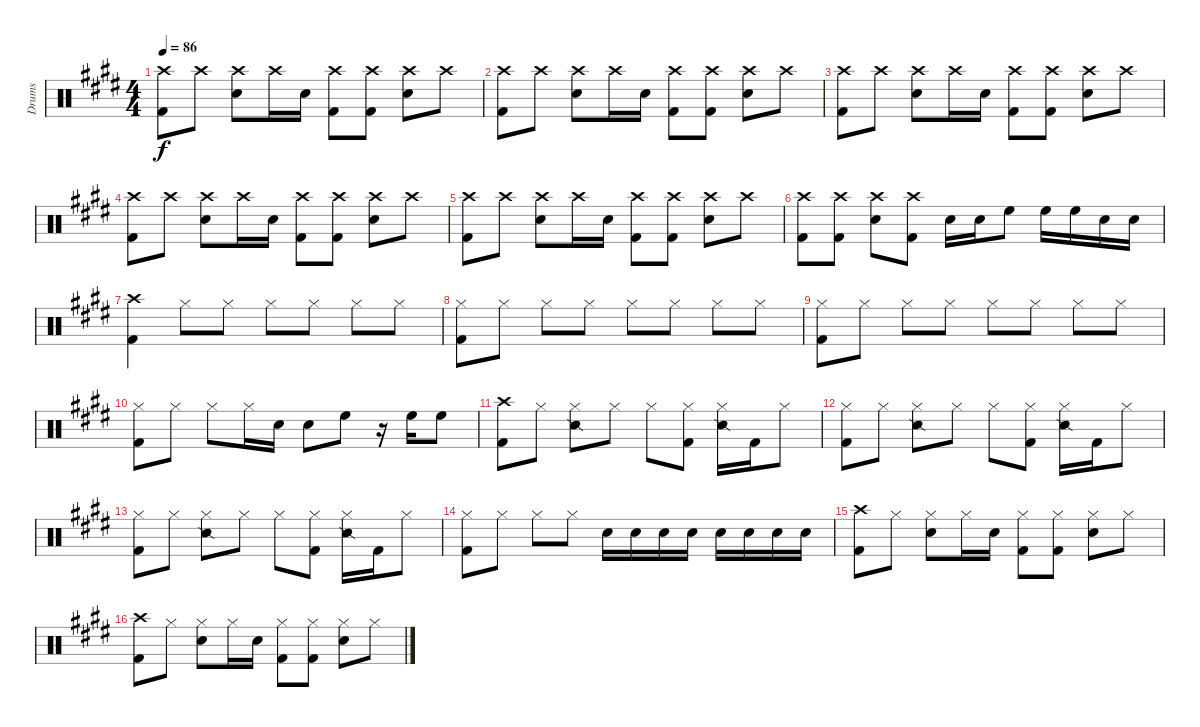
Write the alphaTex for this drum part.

\track ("Drums" "Drums") {instrument percussion}
\staff {score}
\articulation defaults
\ts (4 4)
\tempo 86
\clef neutral
\ks e
("Crash high (hit)" "Kick (hit) 2").8{dy f} "Crash high (hit)".8 ("Crash high (hit)" "Snare (hit) 2").8 "Crash high (hit)".16 "Snare (hit) 2".16 ("Crash high (hit)" "Kick (hit) 2").8 ("Crash high (hit)" "Kick (hit) 2").8 ("Crash high (hit)" "Snare (hit) 2").8 "Crash high (hit)".8 |
("Crash high (hit)" "Kick (hit) 2").8 "Crash high (hit)".8 ("Crash high (hit)" "Snare (hit) 2").8 "Crash high (hit)".16 "Snare (hit) 2".16 ("Crash high (hit)" "Kick (hit) 2").8 ("Crash high (hit)" "Kick (hit) 2").8 ("Crash high (hit)" "Snare (hit) 2").8 "Crash high (hit)".8 |
("Crash high (hit)" "Kick (hit) 2").8 "Crash high (hit)".8 ("Crash high (hit)" "Snare (hit) 2").8 "Crash high (hit)".16 "Snare (hit) 2".16 ("Crash high (hit)" "Kick (hit) 2").8 ("Crash high (hit)" "Kick (hit) 2").8 ("Crash high (hit)" "Snare (hit) 2").8 "Crash high (hit)".8 |
("Crash high (hit)" "Kick (hit) 2").8 "Crash high (hit)".8 ("Crash high (hit)" "Snare (hit) 2").8 "Crash high (hit)".16 "Snare (hit) 2".16 ("Crash high (hit)" "Kick (hit) 2").8 ("Crash high (hit)" "Kick (hit) 2").8 ("Crash high (hit)" "Snare (hit) 2").8 "Crash high (hit)".8 |
("Crash high (hit)" "Kick (hit) 2").8 "Crash high (hit)".8 ("Crash high (hit)" "Snare (hit) 2").8 "Crash high (hit)".16 "Snare (hit) 2".16 ("Crash high (hit)" "Kick (hit) 2").8 ("Crash high (hit)" "Kick (hit) 2").8 ("Crash high (hit)" "Snare (hit) 2").8 "Crash high (hit)".8 |
("Crash high (hit)" "Kick (hit) 2").8 ("Crash high (hit)" "Kick (hit) 2").8 ("Crash high (hit)" "Snare (hit) 2").8 ("Crash high (hit)" "Kick (hit) 2").8 "Snare (hit) 2".16 "Snare (hit) 2".16 "High Floor Tom (hit)".8 "High Floor Tom (hit)".16 "High Floor Tom (hit)".16 "Snare (hit) 2".16 "Snare (hit) 2".16 |
("Crash high (hit)" "Kick (hit) 2").4 "Hi-Hat (closed)".8 "Hi-Hat (closed)".8 "Hi-Hat (closed)".8 "Hi-Hat (closed)".8 "Hi-Hat (closed)".8 "Hi-Hat (closed)".8 |
("Hi-Hat (closed)" "Kick (hit) 2").8 "Hi-Hat (closed)".8 "Hi-Hat (closed)".8 "Hi-Hat (closed)".8 "Hi-Hat (closed)".8 "Hi-Hat (closed)".8 "Hi-Hat (closed)".8 "Hi-Hat (closed)".8 |
("Hi-Hat (closed)" "Kick (hit) 2").8 "Hi-Hat (closed)".8 "Hi-Hat (closed)".8 "Hi-Hat (closed)".8 "Hi-Hat (closed)".8 "Hi-Hat (closed)".8 "Hi-Hat (closed)".8 "Hi-Hat (closed)".8 |
("Hi-Hat (closed)" "Kick (hit) 2").8 "Hi-Hat (closed)".8 "Hi-Hat (closed)".8 "Hi-Hat (closed)".16 "Snare (hit) 2".16 "Snare (hit) 2".8 "High Floor Tom (hit)".8 r.16 "High Floor Tom (hit)".16 "High Floor Tom (hit)".8 |
("Crash high (hit)" "Kick (hit) 2").8 "Hi-Hat (closed)".8 ("Hi-Hat (closed)" "Snare (side stick) 2").8 "Hi-Hat (closed)".8 "Hi-Hat (closed)".8 ("Hi-Hat (closed)" "Kick (hit) 2").8 ("Hi-Hat (closed)" "Snare (side stick) 2").16 "Kick (hit) 2".16 "Hi-Hat (closed)".8 |
("Hi-Hat (closed)" "Kick (hit) 2").8 "Hi-Hat (closed)".8 ("Hi-Hat (closed)" "Snare (side stick) 2").8 "Hi-Hat (closed)".8 "Hi-Hat (closed)".8 ("Hi-Hat (closed)" "Kick (hit) 2").8 ("Hi-Hat (closed)" "Snare (side stick) 2").16 "Kick (hit) 2".16 "Hi-Hat (closed)".8 |
("Hi-Hat (closed)" "Kick (hit) 2").8 "Hi-Hat (closed)".8 ("Hi-Hat (closed)" "Snare (side stick) 2").8 "Hi-Hat (closed)".8 "Hi-Hat (closed)".8 ("Hi-Hat (closed)" "Kick (hit) 2").8 ("Hi-Hat (closed)" "Snare (side stick) 2").16 "Kick (hit) 2".16 "Hi-Hat (closed)".8 |
("Hi-Hat (closed)" "Kick (hit) 2").8 "Hi-Hat (closed)".8 "Hi-Hat (closed)".8 "Hi-Hat (closed)".8 "Snare (hit) 2".16 "Snare (hit) 2".16 "Snare (hit) 2".16 "Snare (hit) 2".16 "Snare (hit) 2".16 "Snare (hit) 2".16 "Snare (hit) 2".16 "Snare (hit) 2".16 |
("Crash high (hit)" "Kick (hit) 2").8 "Hi-Hat (closed)".8 ("Hi-Hat (closed)" "Snare (hit) 2").8 "Hi-Hat (closed)".16 "Snare (hit) 2".16 ("Hi-Hat (closed)" "Kick (hit) 2").8 ("Hi-Hat (closed)" "Kick (hit) 2").8 ("Hi-Hat (closed)" "Snare (hit) 2").8 "Hi-Hat (closed)".8 |
("Crash high (hit)" "Kick (hit) 2").8 "Hi-Hat (closed)".8 ("Hi-Hat (closed)" "Snare (hit) 2").8 "Hi-Hat (closed)".16 "Snare (hit) 2".16 ("Hi-Hat (closed)" "Kick (hit) 2").8 ("Hi-Hat (closed)" "Kick (hit) 2").8 ("Hi-Hat (closed)" "Snare (hit) 2").8 "Hi-Hat (closed)".8
